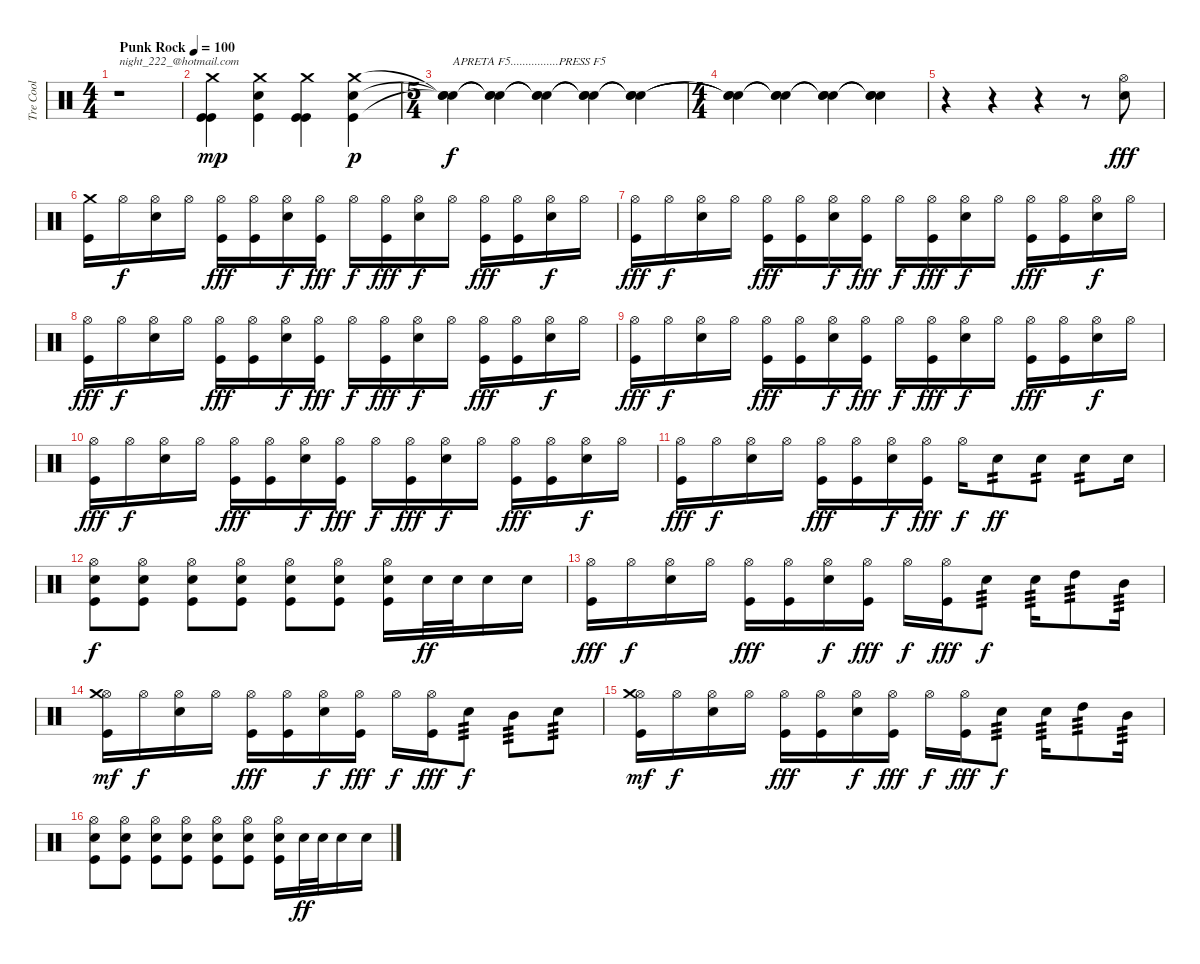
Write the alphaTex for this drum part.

\track ("Tre Cool" "Tre Cool") {instrument percussion}
\staff {score}
\articulation defaults
\ts (4 4)
\tempo (100 "Punk Rock")
\clef neutral
\ks c
r.1{txt "night_222_@hotmail.com" dy mp} |
("Crash medium (hit)" "Kick (hit)" "Kick (hit)").4 ("Crash medium (hit)" "Snare (hit) 2" "Kick (hit)").4 ("Crash medium (hit)" "Kick (hit)" "Kick (hit)").4 ("Crash medium (hit)" "Snare (hit) 2" "Kick (hit)").4{dy p} |
\ts (5 4)
("Snare (hit)"{t} "Snare (hit)"{t} "Snare (hit)"{t}).4{txt "APRETA F5................PRESS F5" dy f} ("Snare (hit)"{t} "Snare (hit)"{t} "Snare (hit)"{t}).4 ("Snare (hit)"{t} "Snare (hit)"{t} "Snare (hit)"{t}).4 ("Snare (hit)"{t} "Snare (hit)"{t} "Snare (hit)"{t}).4 ("Snare (hit)"{t} "Snare (hit)"{t} "Snare (hit)"{t}).4 |
\ts (4 4)
("Snare (hit)"{t} "Snare (hit)"{t} "Snare (hit)"{t}).4 ("Snare (hit)"{t} "Snare (hit)"{t} "Snare (hit)"{t}).4 ("Snare (hit)"{t} "Snare (hit)"{t} "Snare (hit)"{t}).4 ("Snare (hit)"{t} "Snare (hit)"{t} "Snare (hit)"{t}).4 |
r.4 r.4 r.4 r.8 ("Hi-Hat (open)" "Snare (hit) 2").8{dy fff} |
("Crash medium (hit)" "Kick (hit)").16 "Hi-Hat (open)".16{dy f} ("Hi-Hat (open)" "Snare (hit) 2").16 "Hi-Hat (open)".16 ("Hi-Hat (open)" "Kick (hit)").16{dy fff} ("Hi-Hat (open)" "Kick (hit)").16 ("Hi-Hat (open)" "Snare (hit) 2").16{dy f} ("Hi-Hat (open)" "Kick (hit)").16{dy fff} "Hi-Hat (open)".16{dy f} ("Hi-Hat (open)" "Kick (hit)").16{dy fff} ("Hi-Hat (open)" "Snare (hit) 2").16{dy f} "Hi-Hat (open)".16 ("Hi-Hat (open)" "Kick (hit)").16{dy fff} ("Hi-Hat (open)" "Kick (hit)").16 ("Hi-Hat (open)" "Snare (hit) 2").16{dy f} "Hi-Hat (open)".16 |
("Hi-Hat (open)" "Kick (hit)").16{dy fff} "Hi-Hat (open)".16{dy f} ("Hi-Hat (open)" "Snare (hit) 2").16 "Hi-Hat (open)".16 ("Hi-Hat (open)" "Kick (hit)").16{dy fff} ("Hi-Hat (open)" "Kick (hit)").16 ("Hi-Hat (open)" "Snare (hit) 2").16{dy f} ("Hi-Hat (open)" "Kick (hit)").16{dy fff} "Hi-Hat (open)".16{dy f} ("Hi-Hat (open)" "Kick (hit)").16{dy fff} ("Hi-Hat (open)" "Snare (hit) 2").16{dy f} "Hi-Hat (open)".16 ("Hi-Hat (open)" "Kick (hit)").16{dy fff} ("Hi-Hat (open)" "Kick (hit)").16 ("Hi-Hat (open)" "Snare (hit) 2").16{dy f} "Hi-Hat (open)".16 |
("Hi-Hat (open)" "Kick (hit)").16{dy fff} "Hi-Hat (open)".16{dy f} ("Hi-Hat (open)" "Snare (hit) 2").16 "Hi-Hat (open)".16 ("Hi-Hat (open)" "Kick (hit)").16{dy fff} ("Hi-Hat (open)" "Kick (hit)").16 ("Hi-Hat (open)" "Snare (hit) 2").16{dy f} ("Hi-Hat (open)" "Kick (hit)").16{dy fff} "Hi-Hat (open)".16{dy f} ("Hi-Hat (open)" "Kick (hit)").16{dy fff} ("Hi-Hat (open)" "Snare (hit) 2").16{dy f} "Hi-Hat (open)".16 ("Hi-Hat (open)" "Kick (hit)").16{dy fff} ("Hi-Hat (open)" "Kick (hit)").16 ("Hi-Hat (open)" "Snare (hit) 2").16{dy f} "Hi-Hat (open)".16 |
("Hi-Hat (open)" "Kick (hit)").16{dy fff} "Hi-Hat (open)".16{dy f} ("Hi-Hat (open)" "Snare (hit) 2").16 "Hi-Hat (open)".16 ("Hi-Hat (open)" "Kick (hit)").16{dy fff} ("Hi-Hat (open)" "Kick (hit)").16 ("Hi-Hat (open)" "Snare (hit) 2").16{dy f} ("Hi-Hat (open)" "Kick (hit)").16{dy fff} "Hi-Hat (open)".16{dy f} ("Hi-Hat (open)" "Kick (hit)").16{dy fff} ("Hi-Hat (open)" "Snare (hit) 2").16{dy f} "Hi-Hat (open)".16 ("Hi-Hat (open)" "Kick (hit)").16{dy fff} ("Hi-Hat (open)" "Kick (hit)").16 ("Hi-Hat (open)" "Snare (hit) 2").16{dy f} "Hi-Hat (open)".16 |
("Hi-Hat (open)" "Kick (hit)").16{dy fff} "Hi-Hat (open)".16{dy f} ("Hi-Hat (open)" "Snare (hit) 2").16 "Hi-Hat (open)".16 ("Hi-Hat (open)" "Kick (hit)").16{dy fff} ("Hi-Hat (open)" "Kick (hit)").16 ("Hi-Hat (open)" "Snare (hit) 2").16{dy f} ("Hi-Hat (open)" "Kick (hit)").16{dy fff} "Hi-Hat (open)".16{dy f} ("Hi-Hat (open)" "Kick (hit)").16{dy fff} ("Hi-Hat (open)" "Snare (hit) 2").16{dy f} "Hi-Hat (open)".16 ("Hi-Hat (open)" "Kick (hit)").16{dy fff} ("Hi-Hat (open)" "Kick (hit)").16 ("Hi-Hat (open)" "Snare (hit) 2").16{dy f} "Hi-Hat (open)".16 |
("Hi-Hat (open)" "Kick (hit)").16{dy fff} "Hi-Hat (open)".16{dy f} ("Hi-Hat (open)" "Snare (hit) 2").16 "Hi-Hat (open)".16 ("Hi-Hat (open)" "Kick (hit)").16{dy fff} ("Hi-Hat (open)" "Kick (hit)").16 ("Hi-Hat (open)" "Snare (hit) 2").16{dy f} ("Hi-Hat (open)" "Kick (hit)").16{dy fff} "Hi-Hat (open)".16{dy f} "Snare (hit) 2".8{tp 2 dy ff} "Snare (hit) 2".8{tp 2} "Snare (hit) 2".8{tp 2} "Snare (hit) 2".16 |
("Hi-Hat (open)" "Snare (hit) 2" "Kick (hit)").8{dy f} ("Hi-Hat (open)" "Snare (hit) 2" "Kick (hit)").8 ("Hi-Hat (open)" "Snare (hit) 2" "Kick (hit)").8 ("Hi-Hat (open)" "Snare (hit) 2" "Kick (hit)").8 ("Hi-Hat (open)" "Snare (hit) 2" "Kick (hit)").8 ("Hi-Hat (open)" "Snare (hit) 2" "Kick (hit)").8 ("Hi-Hat (open)" "Snare (hit) 2" "Kick (hit)").16 "Snare (hit) 2".32{dy ff} "Snare (hit) 2".32 "Snare (hit) 2".16 "Snare (hit) 2".16 |
("Hi-Hat (open)" "Kick (hit)").16{dy fff} "Hi-Hat (open)".16{dy f} ("Hi-Hat (open)" "Snare (hit) 2").16 "Hi-Hat (open)".16 ("Hi-Hat (open)" "Kick (hit)").16{dy fff} ("Hi-Hat (open)" "Kick (hit)").16 ("Hi-Hat (open)" "Snare (hit) 2").16{dy f} ("Hi-Hat (open)" "Kick (hit)").16{dy fff} "Hi-Hat (open)".16{dy f} ("Hi-Hat (open)" "Kick (hit)").16{dy fff} "Snare (hit) 2".8{tp 3 dy f} "Snare (hit) 2".16{tp 3} "High Tom (hit)".8{tp 3} "Mid Tom (hit)".16{tp 3} |
("Hi-Hat (open)" "Kick (hit)" "Crash medium (hit)").16{dy mf} "Hi-Hat (open)".16{dy f} ("Hi-Hat (open)" "Snare (hit) 2").16 "Hi-Hat (open)".16 ("Hi-Hat (open)" "Kick (hit)").16{dy fff} ("Hi-Hat (open)" "Kick (hit)").16 ("Hi-Hat (open)" "Snare (hit) 2").16{dy f} ("Hi-Hat (open)" "Kick (hit)").16{dy fff} "Hi-Hat (open)".16{dy f} ("Hi-Hat (open)" "Kick (hit)").16{dy fff} "Snare (hit) 2".8{tp 3 dy f} "Mid Tom (hit)".8{tp 3} "Snare (hit) 2".8{tp 3} |
("Hi-Hat (open)" "Kick (hit)" "Crash medium (hit)").16{dy mf} "Hi-Hat (open)".16{dy f} ("Hi-Hat (open)" "Snare (hit) 2").16 "Hi-Hat (open)".16 ("Hi-Hat (open)" "Kick (hit)").16{dy fff} ("Hi-Hat (open)" "Kick (hit)").16 ("Hi-Hat (open)" "Snare (hit) 2").16{dy f} ("Hi-Hat (open)" "Kick (hit)").16{dy fff} "Hi-Hat (open)".16{dy f} ("Hi-Hat (open)" "Kick (hit)").16{dy fff} "Snare (hit) 2".8{tp 3 dy f} "Snare (hit) 2".16{tp 3} "High Tom (hit)".8{tp 3} "Mid Tom (hit)".16{tp 3} |
("Hi-Hat (open)" "Snare (hit) 2" "Kick (hit)").8 ("Hi-Hat (open)" "Snare (hit) 2" "Kick (hit)").8 ("Hi-Hat (open)" "Snare (hit) 2" "Kick (hit)").8 ("Hi-Hat (open)" "Snare (hit) 2" "Kick (hit)").8 ("Hi-Hat (open)" "Snare (hit) 2" "Kick (hit)").8 ("Hi-Hat (open)" "Snare (hit) 2" "Kick (hit)").8 ("Hi-Hat (open)" "Snare (hit) 2" "Kick (hit)").16 "Snare (hit) 2".32{dy ff} "Snare (hit) 2".32 "Snare (hit) 2".16 "Snare (hit) 2".16
